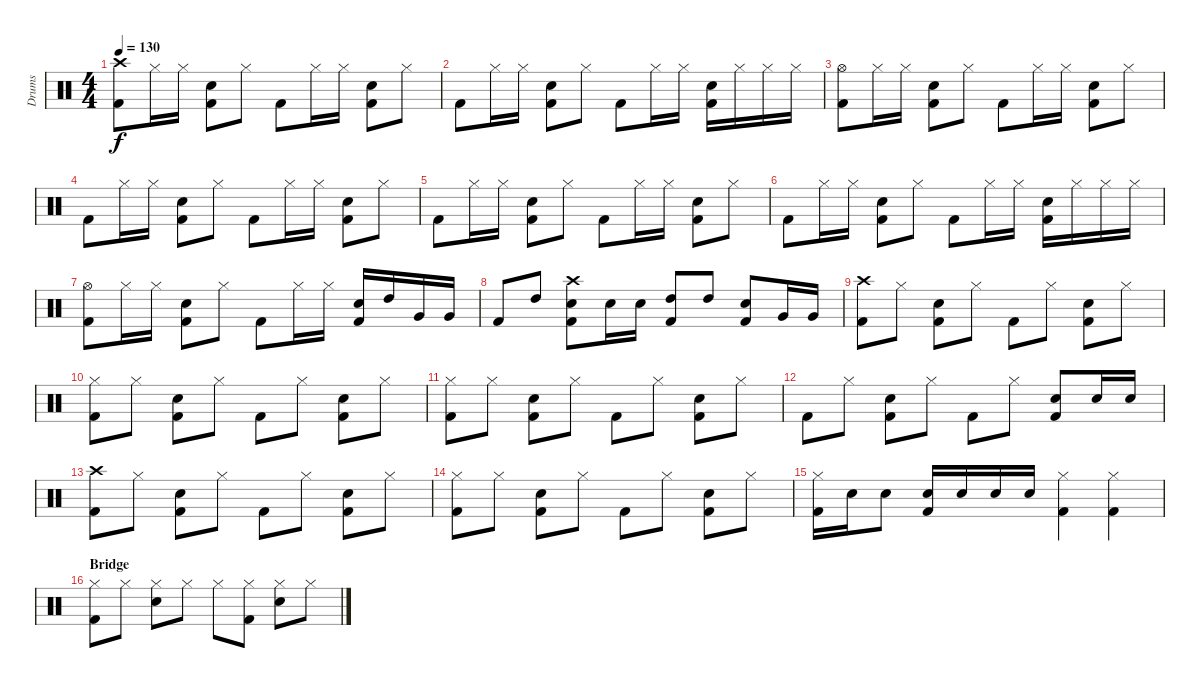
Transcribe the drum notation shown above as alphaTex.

\track ("Drums" "Drums") {instrument percussion}
\staff {score}
\articulation defaults
\ts (4 4)
\tempo 130
\clef neutral
\ks c
("Crash high (hit)" "Kick (hit) 2").8{dy f} "Hi-Hat (closed)".16 "Hi-Hat (closed)".16 ("Snare (hit) 2" "Kick (hit) 2").8 "Hi-Hat (closed)".8 "Kick (hit) 2".8 "Hi-Hat (closed)".16 "Hi-Hat (closed)".16 ("Snare (hit) 2" "Kick (hit) 2").8 "Hi-Hat (closed)".8 |
"Kick (hit) 2".8 "Hi-Hat (closed)".16 "Hi-Hat (closed)".16 ("Snare (hit) 2" "Kick (hit) 2").8 "Hi-Hat (closed)".8 "Kick (hit) 2".8 "Hi-Hat (closed)".16 "Hi-Hat (closed)".16 ("Snare (hit) 2" "Kick (hit) 2").16 "Hi-Hat (closed)".16 "Hi-Hat (closed)".16 "Hi-Hat (closed)".16 |
("Hi-Hat (open)" "Kick (hit) 2").8 "Hi-Hat (closed)".16 "Hi-Hat (closed)".16 ("Snare (hit) 2" "Kick (hit) 2").8 "Hi-Hat (closed)".8 "Kick (hit) 2".8 "Hi-Hat (closed)".16 "Hi-Hat (closed)".16 ("Snare (hit) 2" "Kick (hit) 2").8 "Hi-Hat (closed)".8 |
"Kick (hit) 2".8 "Hi-Hat (closed)".16 "Hi-Hat (closed)".16 ("Snare (hit) 2" "Kick (hit) 2").8 "Hi-Hat (closed)".8 "Kick (hit) 2".8 "Hi-Hat (closed)".16 "Hi-Hat (closed)".16 ("Snare (hit) 2" "Kick (hit) 2").8 "Hi-Hat (closed)".8 |
"Kick (hit) 2".8 "Hi-Hat (closed)".16 "Hi-Hat (closed)".16 ("Snare (hit) 2" "Kick (hit) 2").8 "Hi-Hat (closed)".8 "Kick (hit) 2".8 "Hi-Hat (closed)".16 "Hi-Hat (closed)".16 ("Snare (hit) 2" "Kick (hit) 2").8 "Hi-Hat (closed)".8 |
"Kick (hit) 2".8 "Hi-Hat (closed)".16 "Hi-Hat (closed)".16 ("Snare (hit) 2" "Kick (hit) 2").8 "Hi-Hat (closed)".8 "Kick (hit) 2".8 "Hi-Hat (closed)".16 "Hi-Hat (closed)".16 ("Snare (hit) 2" "Kick (hit) 2").16 "Hi-Hat (closed)".16 "Hi-Hat (closed)".16 "Hi-Hat (closed)".16 |
("Hi-Hat (open)" "Kick (hit) 2").8 "Hi-Hat (closed)".16 "Hi-Hat (closed)".16 ("Snare (hit) 2" "Kick (hit) 2").8 "Hi-Hat (closed)".8 "Kick (hit) 2".8 "Hi-Hat (closed)".16 "Hi-Hat (closed)".16 ("Snare (hit) 2" "Kick (hit) 2").16 "High Tom (hit)".16 "Very Low Tom (hit)".16 "Very Low Tom (hit)".16 |
"Kick (hit) 2".8 "High Tom (hit)".8 ("Crash high (hit)" "Snare (hit) 2" "Kick (hit) 2").8 "Snare (hit) 2".16 "Snare (hit) 2".16 ("High Tom (hit)" "Kick (hit) 2").8 "High Tom (hit)".8 ("Snare (hit) 2" "Kick (hit) 2").8 "Very Low Tom (hit)".16 "Very Low Tom (hit)".16 |
("Crash high (hit)" "Kick (hit) 2").8 "Hi-Hat (closed)".8 ("Snare (hit) 2" "Kick (hit) 2").8 "Hi-Hat (closed)".8 "Kick (hit) 2".8 "Hi-Hat (closed)".8 ("Snare (hit) 2" "Kick (hit) 2").8 "Hi-Hat (closed)".8 |
("Hi-Hat (closed)" "Kick (hit) 2").8 "Hi-Hat (closed)".8 ("Snare (hit) 2" "Kick (hit) 2").8 "Hi-Hat (closed)".8 "Kick (hit) 2".8 "Hi-Hat (closed)".8 ("Snare (hit) 2" "Kick (hit) 2").8 "Hi-Hat (closed)".8 |
("Hi-Hat (closed)" "Kick (hit) 2").8 "Hi-Hat (closed)".8 ("Snare (hit) 2" "Kick (hit) 2").8 "Hi-Hat (closed)".8 "Kick (hit) 2".8 "Hi-Hat (closed)".8 ("Snare (hit) 2" "Kick (hit) 2").8 "Hi-Hat (closed)".8 |
"Kick (hit) 2".8 "Hi-Hat (closed)".8 ("Snare (hit) 2" "Kick (hit) 2").8 "Hi-Hat (closed)".8 "Kick (hit) 2".8 "Hi-Hat (closed)".8 ("Snare (hit) 2" "Kick (hit) 2").8 "Snare (hit) 2".16 "Snare (hit) 2".16 |
("Crash high (hit)" "Kick (hit) 2").8 "Hi-Hat (closed)".8 ("Snare (hit) 2" "Kick (hit) 2").8 "Hi-Hat (closed)".8 "Kick (hit) 2".8 "Hi-Hat (closed)".8 ("Snare (hit) 2" "Kick (hit) 2").8 "Hi-Hat (closed)".8 |
("Hi-Hat (closed)" "Kick (hit) 2").8 "Hi-Hat (closed)".8 ("Snare (hit) 2" "Kick (hit) 2").8 "Hi-Hat (closed)".8 "Kick (hit) 2".8 "Hi-Hat (closed)".8 ("Snare (hit) 2" "Kick (hit) 2").8 "Hi-Hat (closed)".8 |
("Hi-Hat (closed)" "Kick (hit) 2").16 "Snare (hit) 2".16 "Snare (hit) 2".8 ("Snare (hit) 2" "Kick (hit) 2").16 "Snare (hit) 2".16 "Snare (hit) 2".16 "Snare (hit) 2".16 ("Hi-Hat (closed)" "Kick (hit) 2").4 ("Hi-Hat (closed)" "Kick (hit) 2").4 |
\section ("" "Bridge")
("Hi-Hat (closed)" "Kick (hit) 2").8 "Hi-Hat (closed)".8 ("Hi-Hat (closed)" "Snare (hit) 2").8 "Hi-Hat (closed)".8 "Hi-Hat (closed)".8 ("Hi-Hat (closed)" "Kick (hit) 2").8 ("Hi-Hat (closed)" "Snare (hit) 2").8 "Hi-Hat (closed)".8
